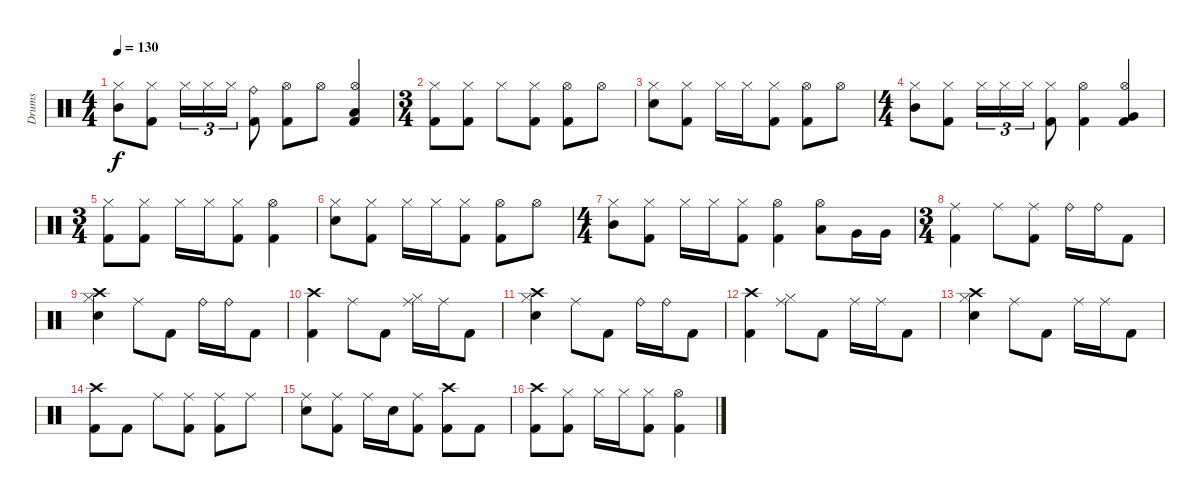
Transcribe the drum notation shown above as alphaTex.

\track ("Drums" "Drums") {instrument percussion}
\staff {score}
\articulation defaults
\ts (4 4)
\tempo 130
\clef neutral
\ks c
("Hi-Hat (closed)" "Mid Tom (hit)").8{dy f} ("Hi-Hat (closed)" "Kick (hit) 2").8 "Hi-Hat (closed)".16{tu (3 2)} "Hi-Hat (closed)".16{tu (3 2)} "Hi-Hat (closed)".16{tu (3 2)} ("Ride (bell)" "Kick (hit) 2").8 ("Hi-Hat (open)" "Kick (hit) 2").8 "Hi-Hat (open)".8 ("Hi-Hat (open)" "Low Floor Tom (hit)" "Kick (hit) 2").4 |
\ts (3 4)
("Hi-Hat (closed)" "Kick (hit) 2").8 ("Hi-Hat (closed)" "Kick (hit) 2").8 "Hi-Hat (closed)".8 ("Hi-Hat (closed)" "Kick (hit) 2").8 ("Hi-Hat (open)" "Kick (hit) 2").8 "Hi-Hat (open)".8 |
("Hi-Hat (closed)" "Snare (hit) 2").8 ("Hi-Hat (closed)" "Kick (hit) 2").8 "Hi-Hat (closed)".16 "Hi-Hat (closed)".16 ("Hi-Hat (closed)" "Kick (hit) 2").8 ("Hi-Hat (open)" "Kick (hit) 2").8 "Hi-Hat (open)".8 |
\ts (4 4)
("Hi-Hat (closed)" "Mid Tom (hit)").8 ("Hi-Hat (closed)" "Kick (hit) 2").8 "Hi-Hat (closed)".16{tu (3 2)} "Hi-Hat (closed)".16{tu (3 2)} "Hi-Hat (closed)".16{tu (3 2)} ("Hi-Hat (closed)" "Kick (hit) 2").8 ("Hi-Hat (open)" "Kick (hit) 2").4 ("Hi-Hat (open)" "Very Low Tom (hit)" "Kick (hit) 2").4 |
\ts (3 4)
("Hi-Hat (closed)" "Kick (hit) 2").8 ("Hi-Hat (closed)" "Kick (hit) 2").8 "Hi-Hat (closed)".16 "Hi-Hat (closed)".16 ("Hi-Hat (closed)" "Kick (hit) 2").8 ("Hi-Hat (open)" "Kick (hit) 2").4 |
("Hi-Hat (closed)" "Snare (hit) 2").8 ("Hi-Hat (closed)" "Kick (hit) 2").8 "Hi-Hat (closed)".16 "Hi-Hat (closed)".16 ("Hi-Hat (closed)" "Kick (hit) 2").8 ("Hi-Hat (open)" "Kick (hit) 2").8 "Hi-Hat (open)".8 |
\ts (4 4)
("Hi-Hat (closed)" "Mid Tom (hit)").8 ("Hi-Hat (closed)" "Kick (hit) 2").8 "Hi-Hat (closed)".16 "Hi-Hat (closed)".16 ("Hi-Hat (closed)" "Kick (hit) 2").8 ("Hi-Hat (open)" "Kick (hit) 2").4 ("Hi-Hat (open)" "Low Floor Tom (hit)").8 "Very Low Tom (hit)".16 "Very Low Tom (hit)".16 |
\ts (3 4)
("Ride (middle)" "Kick (hit) 2").4 "Ride (middle)".8 ("Ride (middle)" "Kick (hit) 2").8 "Ride (bell)".16 "Ride (bell)".16 "Kick (hit) 2".8 |
("Crash high (hit)" "Snare (hit) 2" "Hi-Hat (closed)").4 "Ride (middle)".8 "Kick (hit) 2".8 "Ride (bell)".16 "Ride (bell)".16 "Kick (hit) 2".8 |
("Crash high (hit)" "Kick (hit) 2").4 "Ride (middle)".8 "Kick (hit) 2".8 ("Ride (middle)" "Hi-Hat (closed)").16 "Ride (middle)".16 "Kick (hit) 2".8 |
("Crash high (hit)" "Snare (hit) 2" "Hi-Hat (closed)").4 "Ride (middle)".8 "Kick (hit) 2".8 "Ride (bell)".16 "Ride (bell)".16 "Kick (hit) 2".8 |
("Crash high (hit)" "Kick (hit) 2").4 ("Ride (middle)" "Hi-Hat (closed)").8 "Kick (hit) 2".8 "Ride (middle)".16 "Ride (middle)".16 "Kick (hit) 2".8 |
("Crash high (hit)" "Snare (hit) 2" "Hi-Hat (closed)").4 "Ride (middle)".8 "Kick (hit) 2".8 "Ride (middle)".16 "Ride (middle)".16 "Kick (hit) 2".8 |
("Crash high (hit)" "Kick (hit) 2").8 "Kick (hit) 2".8 "Ride (middle)".8 ("Ride (middle)" "Kick (hit) 2").8 ("Ride (middle)" "Kick (hit) 2").8 "Ride (middle)".8 |
("Ride (middle)" "Snare (hit) 2").8 ("Ride (middle)" "Kick (hit) 2").8 "Ride (middle)".16 "Snare (hit) 2".16 ("Ride (middle)" "Kick (hit) 2").8 ("Crash high (hit)" "Kick (hit) 2").8 "Kick (hit) 2".8 |
("Crash high (hit)" "Kick (hit) 2").8 ("Hi-Hat (closed)" "Kick (hit) 2").8 "Hi-Hat (closed)".16 "Hi-Hat (closed)".16 ("Hi-Hat (closed)" "Kick (hit) 2").8 ("Hi-Hat (open)" "Kick (hit) 2").4
